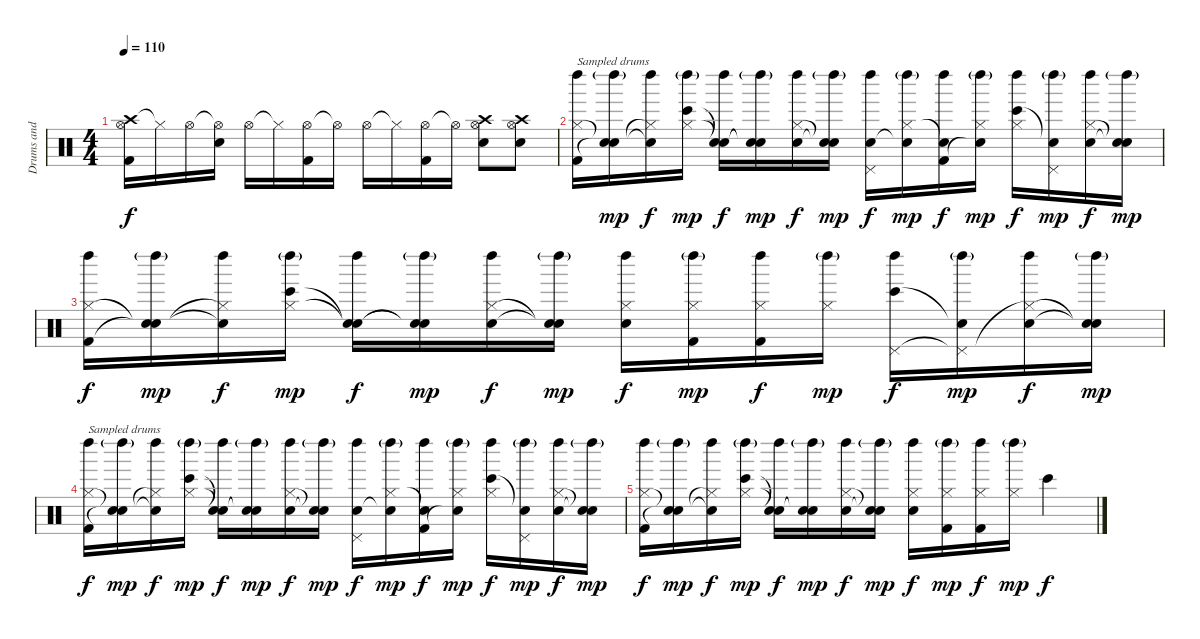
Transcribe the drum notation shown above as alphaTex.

\track ("Drums and sampler(Rob Bourdon and Joe)" "Drums and ") {instrument percussion}
\staff {score}
\articulation defaults
\ts (4 4)
\tempo 110
\clef neutral
\ks c
("Crash high (hit)" "Hi-Hat (open)" "Kick (hit) 2").16{dy f} "Hi-Hat (closed)"{t}.16 "Hi-Hat (open)".16 ("Hi-Hat (open)"{t} "Electric Snare (hit)").16 "Hi-Hat (open)".16 "Hi-Hat (closed)"{t}.16 ("Hi-Hat (open)" "Kick (hit) 2").16 "Hi-Hat (open)"{t}.16 "Hi-Hat (open)".16 "Hi-Hat (closed)"{t}.16 ("Hi-Hat (open)" "Kick (hit) 2").16 "Hi-Hat (open)"{t}.16 ("Crash high (hit)" "Hi-Hat (open)" "Electric Snare (hit)").8 ("Crash high (hit)" "Hi-Hat (open)" "Electric Snare (hit)").8 |
("Left Maraca (hit)" "Hi-Hat (closed)" "Kick (hit) 2").16{txt "Sampled drums" volume 10} ("Left Maraca (hit)"{g} "Snare (hit)"{t} "Snare (hit)"{t}).16{dy mp} ("Left Maraca (hit)" "Hi-Hat (closed)"{t} "Snare (hit)"{t}).16{dy f} ("Left Maraca (hit)"{g} "Hi-Hat (closed)" "Bongo High (hit)").16{dy mp} ("Left Maraca (hit)" "Snare (hit)"{t} "Snare (hit)"{t}).16{dy f} ("Left Maraca (hit)"{g} "Snare (hit)"{t} "Snare (hit)"{t}).16{dy mp} ("Left Maraca (hit)" "Hi-Hat (closed)" "Snare (hit)").16{dy f} ("Left Maraca (hit)"{g} "Snare (hit)"{t} "Snare (hit)"{t}).16{dy mp} ("Left Maraca (hit)" "Pedal Hi-Hat (hit)" "Snare (hit)").16{dy f} ("Left Maraca (hit)"{g} "Hi-Hat (closed)" "Snare (hit)"{t}).16{dy mp} ("Left Maraca (hit)" "Snare (hit)"{t} "Kick (hit) 2").16{dy f} ("Left Maraca (hit)"{g} "Hi-Hat (closed)" "Snare (hit)"{t}).16{dy mp} ("Left Maraca (hit)" "Hi-Hat (closed)" "Bongo High (hit)").16{dy f} ("Left Maraca (hit)"{g} "Pedal Hi-Hat (hit)" "Snare (hit)"{t}).16{dy mp} ("Left Maraca (hit)" "Hi-Hat (closed)" "Snare (hit)").16{dy f} ("Left Maraca (hit)"{g} "Snare (hit)"{t} "Snare (hit)"{t}).16{dy mp} |
("Left Maraca (hit)" "Hi-Hat (closed)" "Kick (hit) 2").16{dy f volume 10} ("Left Maraca (hit)"{g} "Snare (hit)"{t} "Snare (hit)"{t}).16{dy mp} ("Left Maraca (hit)" "Hi-Hat (closed)"{t} "Snare (hit)"{t}).16{dy f} ("Left Maraca (hit)"{g} "Hi-Hat (closed)" "Bongo High (hit)").16{dy mp} ("Left Maraca (hit)" "Snare (hit)"{t} "Snare (hit)"{t}).16{dy f} ("Left Maraca (hit)"{g} "Snare (hit)"{t} "Snare (hit)"{t}).16{dy mp} ("Left Maraca (hit)" "Hi-Hat (closed)" "Snare (hit)").16{dy f} ("Left Maraca (hit)"{g} "Snare (hit)"{t} "Snare (hit)"{t}).16{dy mp} ("Left Maraca (hit)" "Hi-Hat (closed)" "Snare (hit)").16{dy f} ("Left Maraca (hit)"{g} "Hi-Hat (closed)" "Kick (hit) 2").16{dy mp} ("Left Maraca (hit)" "Hi-Hat (closed)" "Kick (hit) 2").16{dy f} ("Left Maraca (hit)"{g} "Hi-Hat (closed)").16{dy mp} ("Left Maraca (hit)" "Pedal Hi-Hat (hit)" "Bongo High (hit)").16{dy f} ("Left Maraca (hit)"{g} "Pedal Hi-Hat (hit)"{t} "Snare (hit)"{t}).16{dy mp} ("Left Maraca (hit)" "Hi-Hat (closed)"{t} "Snare (hit)").16{dy f} ("Left Maraca (hit)"{g} "Snare (hit)"{t} "Snare (hit)"{t}).16{dy mp} |
("Left Maraca (hit)" "Hi-Hat (closed)" "Kick (hit) 2").16{txt "Sampled drums" dy f volume 10} ("Left Maraca (hit)"{g} "Snare (hit)"{t} "Snare (hit)"{t}).16{dy mp} ("Left Maraca (hit)" "Hi-Hat (closed)"{t} "Snare (hit)"{t}).16{dy f} ("Left Maraca (hit)"{g} "Hi-Hat (closed)" "Bongo High (hit)").16{dy mp} ("Left Maraca (hit)" "Snare (hit)"{t} "Snare (hit)"{t}).16{dy f} ("Left Maraca (hit)"{g} "Snare (hit)"{t} "Snare (hit)"{t}).16{dy mp} ("Left Maraca (hit)" "Hi-Hat (closed)" "Snare (hit)").16{dy f} ("Left Maraca (hit)"{g} "Snare (hit)"{t} "Snare (hit)"{t}).16{dy mp} ("Left Maraca (hit)" "Pedal Hi-Hat (hit)" "Snare (hit)").16{dy f} ("Left Maraca (hit)"{g} "Hi-Hat (closed)" "Snare (hit)"{t}).16{dy mp} ("Left Maraca (hit)" "Snare (hit)"{t} "Kick (hit) 2").16{dy f} ("Left Maraca (hit)"{g} "Hi-Hat (closed)" "Snare (hit)"{t}).16{dy mp} ("Left Maraca (hit)" "Hi-Hat (closed)" "Bongo High (hit)").16{dy f} ("Left Maraca (hit)"{g} "Pedal Hi-Hat (hit)" "Snare (hit)"{t}).16{dy mp} ("Left Maraca (hit)" "Hi-Hat (closed)" "Snare (hit)").16{dy f} ("Left Maraca (hit)"{g} "Snare (hit)"{t} "Snare (hit)"{t}).16{dy mp} |
("Left Maraca (hit)" "Hi-Hat (closed)" "Kick (hit) 2").16{dy f volume 10} ("Left Maraca (hit)"{g} "Snare (hit)"{t} "Snare (hit)"{t}).16{dy mp} ("Left Maraca (hit)" "Hi-Hat (closed)"{t} "Snare (hit)"{t}).16{dy f} ("Left Maraca (hit)"{g} "Hi-Hat (closed)" "Bongo High (hit)").16{dy mp} ("Left Maraca (hit)" "Snare (hit)"{t} "Snare (hit)"{t}).16{dy f} ("Left Maraca (hit)"{g} "Snare (hit)"{t} "Snare (hit)"{t}).16{dy mp} ("Left Maraca (hit)" "Hi-Hat (closed)" "Snare (hit)").16{dy f} ("Left Maraca (hit)"{g} "Snare (hit)"{t} "Snare (hit)"{t}).16{dy mp} ("Left Maraca (hit)" "Hi-Hat (closed)" "Snare (hit)").16{dy f} ("Left Maraca (hit)"{g} "Hi-Hat (closed)" "Kick (hit) 2").16{dy mp} ("Left Maraca (hit)" "Hi-Hat (closed)" "Kick (hit) 2").16{dy f} ("Left Maraca (hit)"{g} "Hi-Hat (closed)").16{dy mp} "Bongo High (hit)".4{dy f}
